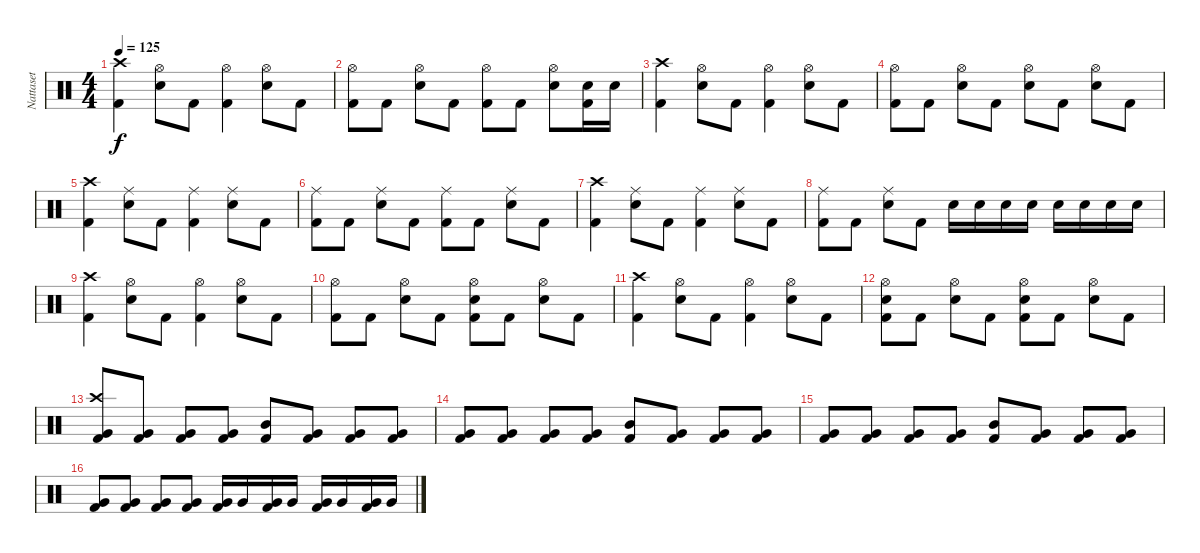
\track ("Nattaset" "Nattaset") {instrument percussion}
\staff {score}
\articulation defaults
\ts (4 4)
\tempo 125
\clef neutral
\ks c
("Kick (hit) 2" "Crash high (hit)").4{dy f} ("Snare (hit) 2" "Hi-Hat (open)").8 "Kick (hit) 2".8 ("Kick (hit) 2" "Hi-Hat (open)").4 ("Snare (hit) 2" "Hi-Hat (open)").8 "Kick (hit) 2".8 |
("Kick (hit) 2" "Hi-Hat (open)").8 "Kick (hit) 2".8 ("Snare (hit) 2" "Hi-Hat (open)").8 "Kick (hit) 2".8 ("Kick (hit) 2" "Hi-Hat (open)").8 "Kick (hit) 2".8 ("Snare (hit) 2" "Hi-Hat (open)").8 ("Kick (hit) 2" "Snare (hit) 2").16 "Snare (hit) 2".16 |
("Kick (hit) 2" "Crash high (hit)").4 ("Snare (hit) 2" "Hi-Hat (open)").8 "Kick (hit) 2".8 ("Kick (hit) 2" "Hi-Hat (open)").4 ("Snare (hit) 2" "Hi-Hat (open)").8 "Kick (hit) 2".8 |
("Kick (hit) 2" "Hi-Hat (open)").8 "Kick (hit) 2".8 ("Snare (hit) 2" "Hi-Hat (open)").8 "Kick (hit) 2".8 ("Snare (hit) 2" "Hi-Hat (open)").8 "Kick (hit) 2".8 ("Snare (hit) 2" "Hi-Hat (open)").8 "Kick (hit) 2".8 |
("Kick (hit) 2" "Crash high (hit)").4 ("Snare (hit) 2" "Ride (middle)").8 "Kick (hit) 2".8 ("Kick (hit) 2" "Ride (middle)").4 ("Snare (hit) 2" "Ride (middle)").8 "Kick (hit) 2".8 |
("Kick (hit) 2" "Ride (middle)").8 "Kick (hit) 2".8 ("Snare (hit) 2" "Ride (middle)").8 "Kick (hit) 2".8 ("Kick (hit) 2" "Ride (middle)").8 "Kick (hit) 2".8 ("Snare (hit) 2" "Ride (middle)").8 "Kick (hit) 2".8 |
("Kick (hit) 2" "Crash high (hit)").4 ("Snare (hit) 2" "Ride (middle)").8 "Kick (hit) 2".8 ("Kick (hit) 2" "Ride (middle)").4 ("Snare (hit) 2" "Ride (middle)").8 "Kick (hit) 2".8 |
("Kick (hit) 2" "Ride (middle)").8 "Kick (hit) 2".8 ("Snare (hit) 2" "Ride (middle)").8 "Kick (hit) 2".8 "Snare (hit) 2".16 "Snare (hit) 2".16 "Snare (hit) 2".16 "Snare (hit) 2".16 "Snare (hit) 2".16 "Snare (hit) 2".16 "Snare (hit) 2".16 "Snare (hit) 2".16 |
("Kick (hit) 2" "Crash high (hit)").4 ("Snare (hit) 2" "Hi-Hat (open)").8 "Kick (hit) 2".8 ("Kick (hit) 2" "Hi-Hat (open)").4 ("Snare (hit) 2" "Hi-Hat (open)").8 "Kick (hit) 2".8 |
("Kick (hit) 2" "Hi-Hat (open)").8 "Kick (hit) 2".8 ("Snare (hit) 2" "Hi-Hat (open)").8 "Kick (hit) 2".8 ("Kick (hit) 2" "Snare (hit) 2" "Hi-Hat (open)").8 "Kick (hit) 2".8 ("Snare (hit) 2" "Hi-Hat (open)").8 "Kick (hit) 2".8 |
("Kick (hit) 2" "Crash high (hit)").4 ("Snare (hit) 2" "Hi-Hat (open)").8 "Kick (hit) 2".8 ("Kick (hit) 2" "Hi-Hat (open)").4 ("Snare (hit) 2" "Hi-Hat (open)").8 "Kick (hit) 2".8 |
("Kick (hit) 2" "Snare (hit) 2" "Hi-Hat (open)").8 "Kick (hit) 2".8 ("Snare (hit) 2" "Hi-Hat (open)").8 "Kick (hit) 2".8 ("Kick (hit) 2" "Snare (hit) 2" "Hi-Hat (open)").8 "Kick (hit) 2".8 ("Snare (hit) 2" "Hi-Hat (open)").8 "Kick (hit) 2".8 |
("Kick (hit) 2" "Very Low Tom (hit)" "Crash high (hit)").8 ("Kick (hit) 2" "Very Low Tom (hit)").8 ("Kick (hit) 2" "Very Low Tom (hit)").8 ("Kick (hit) 2" "Very Low Tom (hit)").8 ("Kick (hit) 2" "Mid Tom (hit)").8 ("Kick (hit) 2" "Very Low Tom (hit)").8 ("Kick (hit) 2" "Very Low Tom (hit)").8 ("Kick (hit) 2" "Very Low Tom (hit)").8 |
("Kick (hit) 2" "Very Low Tom (hit)").8 ("Kick (hit) 2" "Very Low Tom (hit)").8 ("Kick (hit) 2" "Very Low Tom (hit)").8 ("Kick (hit) 2" "Very Low Tom (hit)").8 ("Kick (hit) 2" "Mid Tom (hit)").8 ("Kick (hit) 2" "Very Low Tom (hit)").8 ("Kick (hit) 2" "Very Low Tom (hit)").8 ("Kick (hit) 2" "Very Low Tom (hit)").8 |
("Kick (hit) 2" "Very Low Tom (hit)").8 ("Kick (hit) 2" "Very Low Tom (hit)").8 ("Kick (hit) 2" "Very Low Tom (hit)").8 ("Kick (hit) 2" "Very Low Tom (hit)").8 ("Kick (hit) 2" "Mid Tom (hit)").8 ("Kick (hit) 2" "Very Low Tom (hit)").8 ("Kick (hit) 2" "Very Low Tom (hit)").8 ("Kick (hit) 2" "Very Low Tom (hit)").8 |
("Kick (hit) 2" "Very Low Tom (hit)").8 ("Kick (hit) 2" "Very Low Tom (hit)").8 ("Kick (hit) 2" "Very Low Tom (hit)").8 ("Kick (hit) 2" "Very Low Tom (hit)").8 ("Kick (hit) 2" "Very Low Tom (hit)").16 "Very Low Tom (hit)".16 ("Kick (hit) 2" "Very Low Tom (hit)").16 "Very Low Tom (hit)".16 ("Kick (hit) 2" "Very Low Tom (hit)").16 "Very Low Tom (hit)".16 ("Kick (hit) 2" "Very Low Tom (hit)").16 "Very Low Tom (hit)".16
